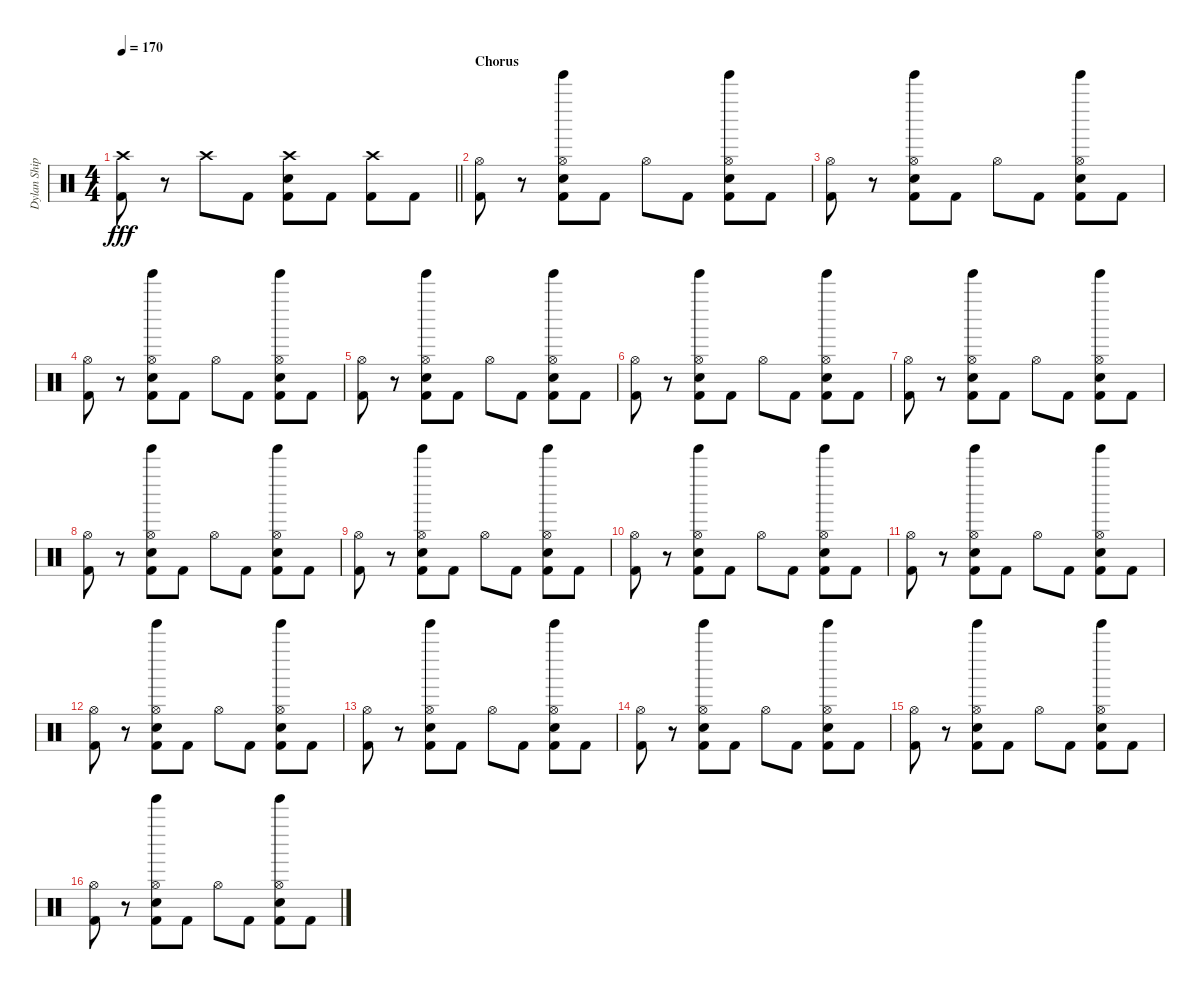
\track ("Dylan Shippey" "Dylan Ship") {instrument percussion}
\staff {score}
\articulation defaults
\ts (4 4)
\tempo 170
\clef neutral
\barLineRight lightlight
\ks c
("Crash high (hit)" "Kick (hit) 2").8{dy fff} r.8 "Crash high (hit)".8 "Kick (hit) 2".8 ("Crash high (hit)" "Electric Snare (hit)" "Kick (hit) 2").8 "Kick (hit) 2".8 ("Crash high (hit)" "Kick (hit) 2").8 "Kick (hit) 2".8 |
\section ("" "Chorus")
("Hi-Hat (open)" "Kick (hit) 2").8 r.8 ("Tinkle Bell (hit)" "Electric Snare (hit)" "Hi-Hat (open)" "Kick (hit) 2").8 "Kick (hit) 2".8 "Hi-Hat (open)".8 "Kick (hit) 2".8 ("Tinkle Bell (hit)" "Electric Snare (hit)" "Hi-Hat (open)" "Kick (hit) 2").8 "Kick (hit) 2".8 |
("Hi-Hat (open)" "Kick (hit) 2").8 r.8 ("Tinkle Bell (hit)" "Electric Snare (hit)" "Hi-Hat (open)" "Kick (hit) 2").8 "Kick (hit) 2".8 "Hi-Hat (open)".8 "Kick (hit) 2".8 ("Tinkle Bell (hit)" "Electric Snare (hit)" "Hi-Hat (open)" "Kick (hit) 2").8 "Kick (hit) 2".8 |
("Hi-Hat (open)" "Kick (hit) 2").8 r.8 ("Tinkle Bell (hit)" "Electric Snare (hit)" "Hi-Hat (open)" "Kick (hit) 2").8 "Kick (hit) 2".8 "Hi-Hat (open)".8 "Kick (hit) 2".8 ("Tinkle Bell (hit)" "Electric Snare (hit)" "Hi-Hat (open)" "Kick (hit) 2").8 "Kick (hit) 2".8 |
("Hi-Hat (open)" "Kick (hit) 2").8 r.8 ("Tinkle Bell (hit)" "Electric Snare (hit)" "Hi-Hat (open)" "Kick (hit) 2").8 "Kick (hit) 2".8 "Hi-Hat (open)".8 "Kick (hit) 2".8 ("Tinkle Bell (hit)" "Electric Snare (hit)" "Hi-Hat (open)" "Kick (hit) 2").8 "Kick (hit) 2".8 |
("Hi-Hat (open)" "Kick (hit) 2").8 r.8 ("Tinkle Bell (hit)" "Electric Snare (hit)" "Hi-Hat (open)" "Kick (hit) 2").8 "Kick (hit) 2".8 "Hi-Hat (open)".8 "Kick (hit) 2".8 ("Tinkle Bell (hit)" "Electric Snare (hit)" "Hi-Hat (open)" "Kick (hit) 2").8 "Kick (hit) 2".8 |
("Hi-Hat (open)" "Kick (hit) 2").8 r.8 ("Tinkle Bell (hit)" "Electric Snare (hit)" "Hi-Hat (open)" "Kick (hit) 2").8 "Kick (hit) 2".8 "Hi-Hat (open)".8 "Kick (hit) 2".8 ("Tinkle Bell (hit)" "Electric Snare (hit)" "Hi-Hat (open)" "Kick (hit) 2").8 "Kick (hit) 2".8 |
("Hi-Hat (open)" "Kick (hit) 2").8 r.8 ("Tinkle Bell (hit)" "Electric Snare (hit)" "Hi-Hat (open)" "Kick (hit) 2").8 "Kick (hit) 2".8 "Hi-Hat (open)".8 "Kick (hit) 2".8 ("Tinkle Bell (hit)" "Electric Snare (hit)" "Hi-Hat (open)" "Kick (hit) 2").8 "Kick (hit) 2".8 |
("Hi-Hat (open)" "Kick (hit) 2").8 r.8 ("Tinkle Bell (hit)" "Electric Snare (hit)" "Hi-Hat (open)" "Kick (hit) 2").8 "Kick (hit) 2".8 "Hi-Hat (open)".8 "Kick (hit) 2".8 ("Tinkle Bell (hit)" "Electric Snare (hit)" "Hi-Hat (open)" "Kick (hit) 2").8 "Kick (hit) 2".8 |
("Hi-Hat (open)" "Kick (hit) 2").8 r.8 ("Tinkle Bell (hit)" "Electric Snare (hit)" "Hi-Hat (open)" "Kick (hit) 2").8 "Kick (hit) 2".8 "Hi-Hat (open)".8 "Kick (hit) 2".8 ("Tinkle Bell (hit)" "Electric Snare (hit)" "Hi-Hat (open)" "Kick (hit) 2").8 "Kick (hit) 2".8 |
("Hi-Hat (open)" "Kick (hit) 2").8 r.8 ("Tinkle Bell (hit)" "Electric Snare (hit)" "Hi-Hat (open)" "Kick (hit) 2").8 "Kick (hit) 2".8 "Hi-Hat (open)".8 "Kick (hit) 2".8 ("Tinkle Bell (hit)" "Electric Snare (hit)" "Hi-Hat (open)" "Kick (hit) 2").8 "Kick (hit) 2".8 |
("Hi-Hat (open)" "Kick (hit) 2").8 r.8 ("Tinkle Bell (hit)" "Electric Snare (hit)" "Hi-Hat (open)" "Kick (hit) 2").8 "Kick (hit) 2".8 "Hi-Hat (open)".8 "Kick (hit) 2".8 ("Tinkle Bell (hit)" "Electric Snare (hit)" "Hi-Hat (open)" "Kick (hit) 2").8 "Kick (hit) 2".8 |
("Hi-Hat (open)" "Kick (hit) 2").8 r.8 ("Tinkle Bell (hit)" "Electric Snare (hit)" "Hi-Hat (open)" "Kick (hit) 2").8 "Kick (hit) 2".8 "Hi-Hat (open)".8 "Kick (hit) 2".8 ("Tinkle Bell (hit)" "Electric Snare (hit)" "Hi-Hat (open)" "Kick (hit) 2").8 "Kick (hit) 2".8 |
("Hi-Hat (open)" "Kick (hit) 2").8 r.8 ("Tinkle Bell (hit)" "Electric Snare (hit)" "Hi-Hat (open)" "Kick (hit) 2").8 "Kick (hit) 2".8 "Hi-Hat (open)".8 "Kick (hit) 2".8 ("Tinkle Bell (hit)" "Electric Snare (hit)" "Hi-Hat (open)" "Kick (hit) 2").8 "Kick (hit) 2".8 |
("Hi-Hat (open)" "Kick (hit) 2").8 r.8 ("Tinkle Bell (hit)" "Electric Snare (hit)" "Hi-Hat (open)" "Kick (hit) 2").8 "Kick (hit) 2".8 "Hi-Hat (open)".8 "Kick (hit) 2".8 ("Tinkle Bell (hit)" "Electric Snare (hit)" "Hi-Hat (open)" "Kick (hit) 2").8 "Kick (hit) 2".8 |
("Hi-Hat (open)" "Kick (hit) 2").8 r.8 ("Tinkle Bell (hit)" "Electric Snare (hit)" "Hi-Hat (open)" "Kick (hit) 2").8 "Kick (hit) 2".8 "Hi-Hat (open)".8 "Kick (hit) 2".8 ("Tinkle Bell (hit)" "Electric Snare (hit)" "Hi-Hat (open)" "Kick (hit) 2").8 "Kick (hit) 2".8
